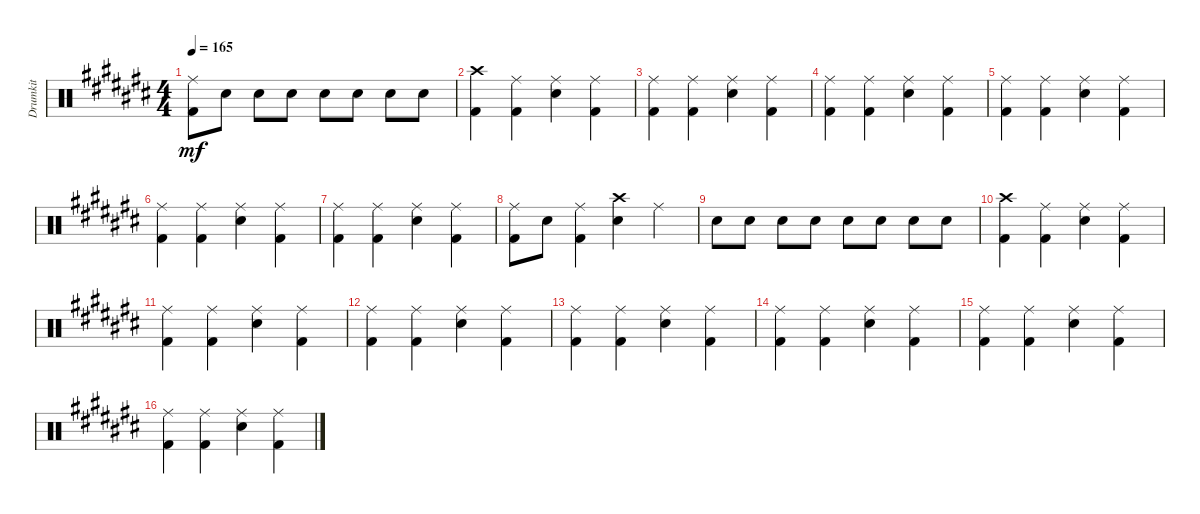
\track ("Drumkit" "Drumkit") {instrument percussion}
\staff {score}
\articulation defaults
\ts (4 4)
\tempo 165
\clef neutral
\ks c#
("Kick (hit) 2" "Ride (middle)").8{dy mf} "Snare (hit) 2".8 "Snare (hit) 2".8 "Snare (hit) 2".8 "Snare (hit) 2".8 "Snare (hit) 2".8 "Snare (hit) 2".8 "Snare (hit) 2".8 |
("Kick (hit) 2" "Crash high (hit)").4 ("Kick (hit) 2" "Ride (middle)").4 ("Snare (hit) 2" "Ride (middle)").4 ("Kick (hit) 2" "Ride (middle)").4 |
("Kick (hit) 2" "Ride (middle)").4 ("Kick (hit) 2" "Ride (middle)").4 ("Snare (hit) 2" "Ride (middle)").4 ("Kick (hit) 2" "Ride (middle)").4 |
("Kick (hit) 2" "Ride (middle)").4 ("Kick (hit) 2" "Ride (middle)").4 ("Snare (hit) 2" "Ride (middle)").4 ("Kick (hit) 2" "Ride (middle)").4 |
("Kick (hit) 2" "Ride (middle)").4 ("Kick (hit) 2" "Ride (middle)").4 ("Snare (hit) 2" "Ride (middle)").4 ("Kick (hit) 2" "Ride (middle)").4 |
("Kick (hit) 2" "Ride (middle)").4 ("Kick (hit) 2" "Ride (middle)").4 ("Snare (hit) 2" "Ride (middle)").4 ("Kick (hit) 2" "Ride (middle)").4 |
("Kick (hit) 2" "Ride (middle)").4 ("Kick (hit) 2" "Ride (middle)").4 ("Snare (hit) 2" "Ride (middle)").4 ("Kick (hit) 2" "Ride (middle)").4 |
("Kick (hit) 2" "Ride (middle)").8 "Snare (hit) 2".8 ("Kick (hit) 2" "Ride (middle)").4 ("Snare (hit) 2" "Crash high (hit)").4 "Ride (middle)".4 |
"Snare (hit) 2".8 "Snare (hit) 2".8 "Snare (hit) 2".8 "Snare (hit) 2".8 "Snare (hit) 2".8 "Snare (hit) 2".8 "Snare (hit) 2".8 "Snare (hit) 2".8 |
("Kick (hit) 2" "Crash high (hit)").4 ("Kick (hit) 2" "Ride (middle)").4 ("Snare (hit) 2" "Ride (middle)").4 ("Kick (hit) 2" "Ride (middle)").4 |
("Kick (hit) 2" "Ride (middle)").4 ("Kick (hit) 2" "Ride (middle)").4 ("Snare (hit) 2" "Ride (middle)").4 ("Kick (hit) 2" "Ride (middle)").4 |
("Kick (hit) 2" "Ride (middle)").4 ("Kick (hit) 2" "Ride (middle)").4 ("Snare (hit) 2" "Ride (middle)").4 ("Kick (hit) 2" "Ride (middle)").4 |
("Kick (hit) 2" "Ride (middle)").4 ("Kick (hit) 2" "Ride (middle)").4 ("Snare (hit) 2" "Ride (middle)").4 ("Kick (hit) 2" "Ride (middle)").4 |
("Kick (hit) 2" "Ride (middle)").4 ("Kick (hit) 2" "Ride (middle)").4 ("Snare (hit) 2" "Ride (middle)").4 ("Kick (hit) 2" "Ride (middle)").4 |
("Kick (hit) 2" "Ride (middle)").4 ("Kick (hit) 2" "Ride (middle)").4 ("Snare (hit) 2" "Ride (middle)").4 ("Kick (hit) 2" "Ride (middle)").4 |
("Kick (hit) 2" "Ride (middle)").4 ("Kick (hit) 2" "Ride (middle)").4 ("Snare (hit) 2" "Ride (middle)").4 ("Kick (hit) 2" "Ride (middle)").4
